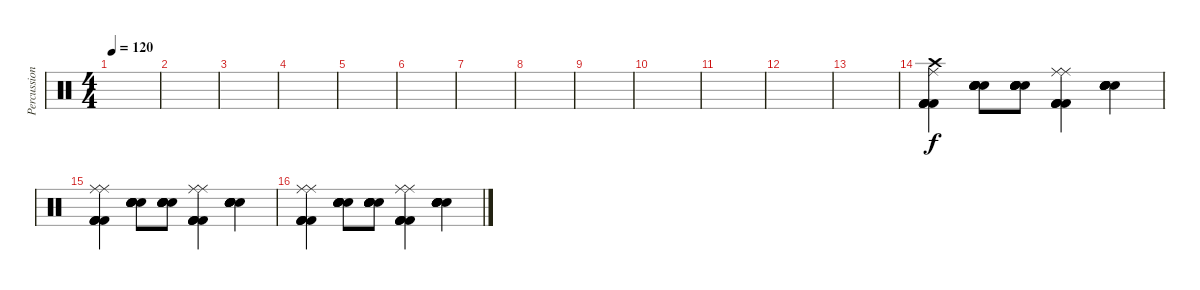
\track ("Percussion" "Percussion") {instrument percussion}
\staff {score}
\articulation defaults
\ts (4 4)
\tempo 120
\clef neutral
\ks c
|
|
|
|
|
|
|
|
|
|
|
|
|
("Crash high (hit)" "Kick (hit) 2" "Kick (hit) 2" "Kick (hit) 2" "Kick (hit) 2" "Ride (middle)").4 ("Electric Snare (hit)" "Electric Snare (hit)" "Electric Snare (hit)" "Electric Snare (hit)" "Electric Snare (hit)" "Electric Snare (hit)").8 ("Electric Snare (hit)" "Electric Snare (hit)" "Electric Snare (hit)" "Electric Snare (hit)" "Electric Snare (hit)" "Electric Snare (hit)").8 ("Ride (middle)" "Kick (hit) 2" "Kick (hit) 2" "Kick (hit) 2" "Kick (hit) 2" "Ride (middle)").4 ("Electric Snare (hit)" "Electric Snare (hit)" "Electric Snare (hit)" "Electric Snare (hit)" "Electric Snare (hit)" "Electric Snare (hit)").4 |
("Ride (middle)" "Kick (hit) 2" "Kick (hit) 2" "Kick (hit) 2" "Kick (hit) 2" "Ride (middle)").4 ("Electric Snare (hit)" "Electric Snare (hit)" "Electric Snare (hit)" "Electric Snare (hit)" "Electric Snare (hit)" "Electric Snare (hit)").8 ("Electric Snare (hit)" "Electric Snare (hit)" "Electric Snare (hit)" "Electric Snare (hit)" "Electric Snare (hit)" "Electric Snare (hit)").8 ("Ride (middle)" "Kick (hit) 2" "Kick (hit) 2" "Kick (hit) 2" "Kick (hit) 2" "Ride (middle)").4 ("Electric Snare (hit)" "Electric Snare (hit)" "Electric Snare (hit)" "Electric Snare (hit)" "Electric Snare (hit)" "Electric Snare (hit)").4 |
("Ride (middle)" "Kick (hit) 2" "Kick (hit) 2" "Kick (hit) 2" "Kick (hit) 2" "Ride (middle)").4 ("Electric Snare (hit)" "Electric Snare (hit)" "Electric Snare (hit)" "Electric Snare (hit)" "Electric Snare (hit)" "Electric Snare (hit)").8 ("Electric Snare (hit)" "Electric Snare (hit)" "Electric Snare (hit)" "Electric Snare (hit)" "Electric Snare (hit)" "Electric Snare (hit)").8 ("Ride (middle)" "Kick (hit) 2" "Kick (hit) 2" "Kick (hit) 2" "Kick (hit) 2" "Ride (middle)").4 ("Electric Snare (hit)" "Electric Snare (hit)" "Electric Snare (hit)" "Electric Snare (hit)" "Electric Snare (hit)" "Electric Snare (hit)").4
